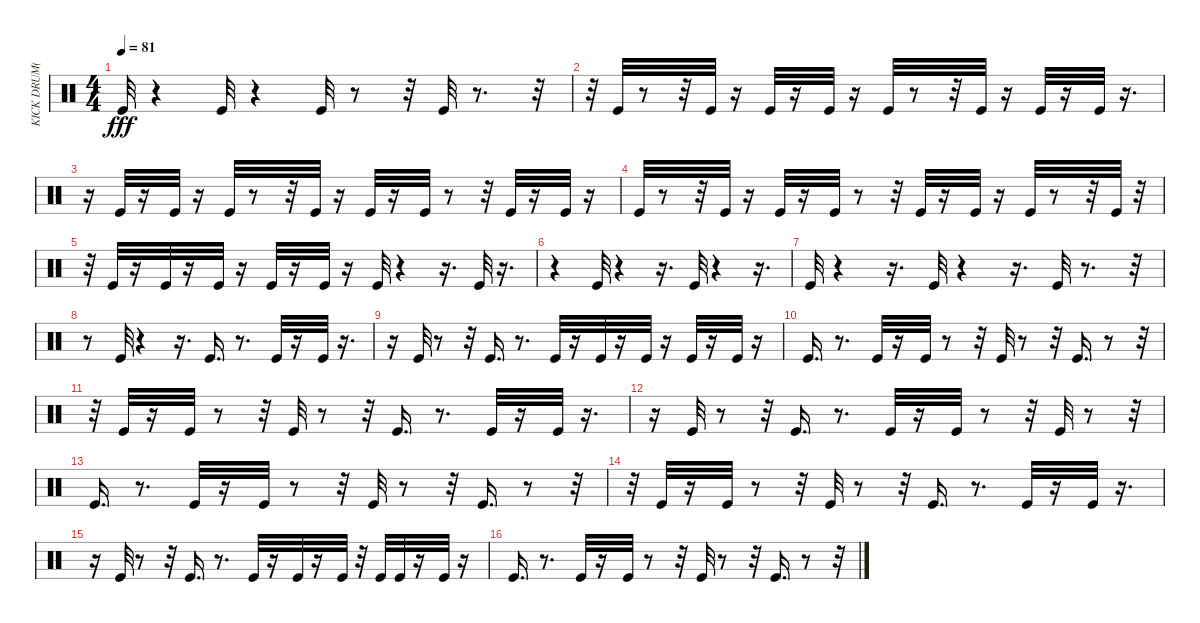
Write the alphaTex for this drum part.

\track ("KICK DRUM(ACOU)" "KICK DRUM(") {instrument percussion}
\staff {score}
\articulation defaults
\ts (4 4)
\tempo 81
\clef neutral
\ks c "Kick (hit)".32{dy fff}
r.4 "Kick (hit)".32 r.4 "Kick (hit)".32 r.8 r.32 "Kick (hit)".32 r.8{d} r.32 |
r.32 "Kick (hit)".32 r.8 r.32 "Kick (hit)".32 r.16 "Kick (hit)".32 r.16 "Kick (hit)".32 r.16 "Kick (hit)".32 r.8 r.32 "Kick (hit)".32 r.16 "Kick (hit)".32 r.16 "Kick (hit)".32 r.16{d} |
r.16 "Kick (hit)".32 r.16 "Kick (hit)".32 r.16 "Kick (hit)".32 r.8 r.32 "Kick (hit)".32 r.16 "Kick (hit)".32 r.16 "Kick (hit)".32 r.8 r.32 "Kick (hit)".32 r.16 "Kick (hit)".32 r.16 |
"Kick (hit)".32 r.8 r.32 "Kick (hit)".32 r.16 "Kick (hit)".32 r.16 "Kick (hit)".32 r.8 r.32 "Kick (hit)".32 r.16 "Kick (hit)".32 r.16 "Kick (hit)".32 r.8 r.32 "Kick (hit)".32 r.32 |
r.32 "Kick (hit)".32 r.16 "Kick (hit)".32 r.16 "Kick (hit)".32 r.16 "Kick (hit)".32 r.16 "Kick (hit)".32 r.16 "Kick (hit)".32 r.4 r.16{d} "Kick (hit)".32 r.16{d} |
r.4 "Kick (hit)".32 r.4 r.16{d} "Kick (hit)".32 r.4 r.16{d} |
"Kick (hit)".32 r.4 r.16{d} "Kick (hit)".32 r.4 r.16{d} "Kick (hit)".32 r.8{d} r.32 |
r.8 "Kick (hit)".32 r.4 r.16{d} "Kick (hit)".16{d} r.8{d} "Kick (hit)".32 r.16 "Kick (hit)".32 r.16{d} |
r.16 "Kick (hit)".32 r.8 r.32 "Kick (hit)".16{d} r.8{d} "Kick (hit)".32 r.16 "Kick (hit)".32 r.16 "Kick (hit)".32 r.16 "Kick (hit)".32 r.16 "Kick (hit)".32 r.16 |
"Kick (hit)".16{d} r.8{d} "Kick (hit)".32 r.16 "Kick (hit)".32 r.8 r.32 "Kick (hit)".32 r.8 r.32 "Kick (hit)".16{d} r.8 r.32 |
r.32 "Kick (hit)".32 r.16 "Kick (hit)".32 r.8 r.32 "Kick (hit)".32 r.8 r.32 "Kick (hit)".16{d} r.8{d} "Kick (hit)".32 r.16 "Kick (hit)".32 r.16{d} |
r.16 "Kick (hit)".32 r.8 r.32 "Kick (hit)".16{d} r.8{d} "Kick (hit)".32 r.16 "Kick (hit)".32 r.8 r.32 "Kick (hit)".32 r.8 r.32 |
"Kick (hit)".16{d} r.8{d} "Kick (hit)".32 r.16 "Kick (hit)".32 r.8 r.32 "Kick (hit)".32 r.8 r.32 "Kick (hit)".16{d} r.8 r.32 |
r.32 "Kick (hit)".32 r.16 "Kick (hit)".32 r.8 r.32 "Kick (hit)".32 r.8 r.32 "Kick (hit)".16{d} r.8{d} "Kick (hit)".32 r.16 "Kick (hit)".32 r.16{d} |
r.16 "Kick (hit)".32 r.8 r.32 "Kick (hit)".16{d} r.8{d} "Kick (hit)".32 r.16 "Kick (hit)".32 r.16 "Kick (hit)".32 r.32 "Kick (hit)".32 "Kick (hit)".32 r.16 "Kick (hit)".32 r.16 |
"Kick (hit)".16{d} r.8{d} "Kick (hit)".32 r.16 "Kick (hit)".32 r.8 r.32 "Kick (hit)".32 r.8 r.32 "Kick (hit)".16{d} r.8 r.32
